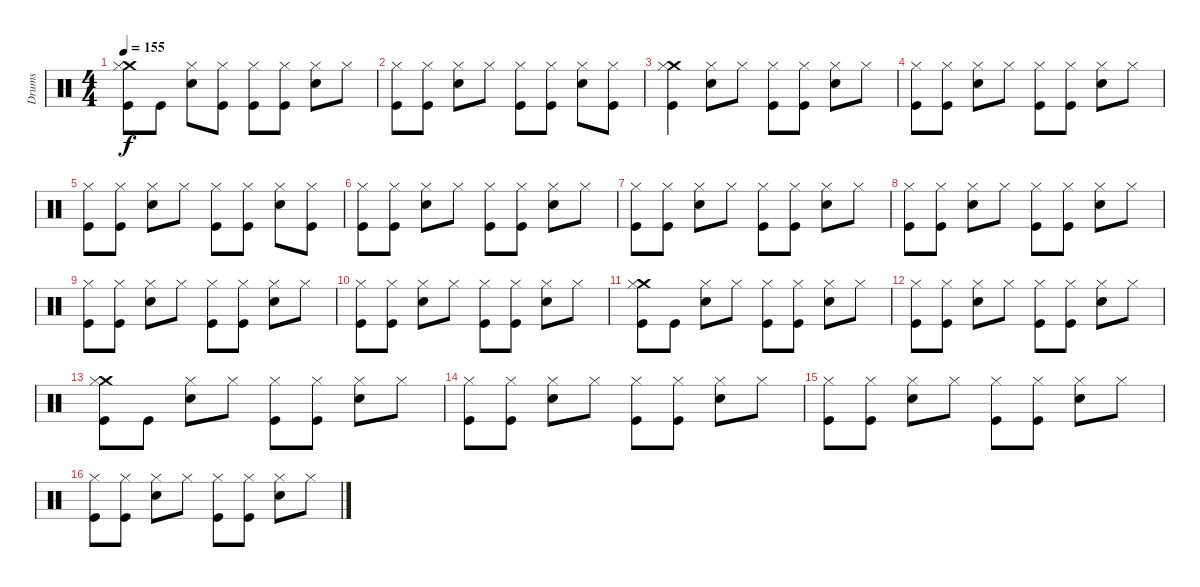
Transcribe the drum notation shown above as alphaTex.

\track ("Drums" "Drums") {instrument percussion}
\staff {score}
\articulation defaults
\ts (4 4)
\tempo 155
\clef neutral
\ks c
("Crash medium (hit)" "Hi-Hat (closed)" "Kick (hit)").8{dy f} "Kick (hit)".8 ("Hi-Hat (closed)" "Snare (hit) 2").8 ("Hi-Hat (closed)" "Kick (hit)").8 ("Hi-Hat (closed)" "Kick (hit)").8 ("Hi-Hat (closed)" "Kick (hit)").8 ("Hi-Hat (closed)" "Snare (hit) 2").8 "Hi-Hat (closed)".8 |
("Hi-Hat (closed)" "Kick (hit)").8 ("Hi-Hat (closed)" "Kick (hit)").8 ("Hi-Hat (closed)" "Snare (hit) 2").8 "Hi-Hat (closed)".8 ("Hi-Hat (closed)" "Kick (hit)").8 ("Hi-Hat (closed)" "Kick (hit)").8 ("Hi-Hat (closed)" "Snare (hit) 2").8 ("Hi-Hat (closed)" "Kick (hit)").8 |
("Crash medium (hit)" "Hi-Hat (closed)" "Kick (hit)").4 ("Hi-Hat (closed)" "Snare (hit) 2").8 "Hi-Hat (closed)".8 ("Hi-Hat (closed)" "Kick (hit)").8 ("Hi-Hat (closed)" "Kick (hit)").8 ("Hi-Hat (closed)" "Snare (hit) 2").8 "Hi-Hat (closed)".8 |
("Hi-Hat (closed)" "Kick (hit)").8 ("Hi-Hat (closed)" "Kick (hit)").8 ("Hi-Hat (closed)" "Snare (hit) 2").8 "Hi-Hat (closed)".8 ("Hi-Hat (closed)" "Kick (hit)").8 ("Hi-Hat (closed)" "Kick (hit)").8 ("Hi-Hat (closed)" "Snare (hit) 2").8 "Hi-Hat (closed)".8 |
("Hi-Hat (closed)" "Kick (hit)").8 ("Hi-Hat (closed)" "Kick (hit)").8 ("Hi-Hat (closed)" "Snare (hit) 2").8 "Hi-Hat (closed)".8 ("Hi-Hat (closed)" "Kick (hit)").8 ("Hi-Hat (closed)" "Kick (hit)").8 ("Hi-Hat (closed)" "Snare (hit) 2").8 ("Hi-Hat (closed)" "Kick (hit)").8 |
("Hi-Hat (closed)" "Kick (hit)").8 ("Hi-Hat (closed)" "Kick (hit)").8 ("Hi-Hat (closed)" "Snare (hit) 2").8 "Hi-Hat (closed)".8 ("Hi-Hat (closed)" "Kick (hit)").8 ("Hi-Hat (closed)" "Kick (hit)").8 ("Hi-Hat (closed)" "Snare (hit) 2").8 "Hi-Hat (closed)".8 |
("Hi-Hat (closed)" "Kick (hit)").8 ("Hi-Hat (closed)" "Kick (hit)").8 ("Hi-Hat (closed)" "Snare (hit) 2").8 "Hi-Hat (closed)".8 ("Hi-Hat (closed)" "Kick (hit)").8 ("Hi-Hat (closed)" "Kick (hit)").8 ("Hi-Hat (closed)" "Snare (hit) 2").8 "Hi-Hat (closed)".8 |
("Hi-Hat (closed)" "Kick (hit)").8 ("Hi-Hat (closed)" "Kick (hit)").8 ("Hi-Hat (closed)" "Snare (hit) 2").8 "Hi-Hat (closed)".8 ("Hi-Hat (closed)" "Kick (hit)").8 ("Hi-Hat (closed)" "Kick (hit)").8 ("Hi-Hat (closed)" "Snare (hit) 2").8 "Hi-Hat (closed)".8 |
("Hi-Hat (closed)" "Kick (hit)").8 ("Hi-Hat (closed)" "Kick (hit)").8 ("Hi-Hat (closed)" "Snare (hit) 2").8 "Hi-Hat (closed)".8 ("Hi-Hat (closed)" "Kick (hit)").8 ("Hi-Hat (closed)" "Kick (hit)").8 ("Hi-Hat (closed)" "Snare (hit) 2").8 "Hi-Hat (closed)".8 |
("Hi-Hat (closed)" "Kick (hit)").8 ("Hi-Hat (closed)" "Kick (hit)").8 ("Hi-Hat (closed)" "Snare (hit) 2").8 "Hi-Hat (closed)".8 ("Hi-Hat (closed)" "Kick (hit)").8 ("Hi-Hat (closed)" "Kick (hit)").8 ("Hi-Hat (closed)" "Snare (hit) 2").8 "Hi-Hat (closed)".8 |
("Crash medium (hit)" "Hi-Hat (closed)" "Kick (hit)").8 "Kick (hit)".8 ("Hi-Hat (closed)" "Snare (hit) 2").8 "Hi-Hat (closed)".8 ("Hi-Hat (closed)" "Kick (hit)").8 ("Hi-Hat (closed)" "Kick (hit)").8 ("Hi-Hat (closed)" "Snare (hit) 2").8 "Hi-Hat (closed)".8 |
("Hi-Hat (closed)" "Kick (hit)").8 ("Hi-Hat (closed)" "Kick (hit)").8 ("Hi-Hat (closed)" "Snare (hit) 2").8 "Hi-Hat (closed)".8 ("Hi-Hat (closed)" "Kick (hit)").8 ("Hi-Hat (closed)" "Kick (hit)").8 ("Hi-Hat (closed)" "Snare (hit) 2").8 "Hi-Hat (closed)".8 |
("Crash medium (hit)" "Hi-Hat (closed)" "Kick (hit)").8 "Kick (hit)".8 ("Hi-Hat (closed)" "Snare (hit) 2").8 "Hi-Hat (closed)".8 ("Hi-Hat (closed)" "Kick (hit)").8 ("Hi-Hat (closed)" "Kick (hit)").8 ("Hi-Hat (closed)" "Snare (hit) 2").8 "Hi-Hat (closed)".8 |
("Hi-Hat (closed)" "Kick (hit)").8 ("Hi-Hat (closed)" "Kick (hit)").8 ("Hi-Hat (closed)" "Snare (hit) 2").8 "Hi-Hat (closed)".8 ("Hi-Hat (closed)" "Kick (hit)").8 ("Hi-Hat (closed)" "Kick (hit)").8 ("Hi-Hat (closed)" "Snare (hit) 2").8 "Hi-Hat (closed)".8 |
("Hi-Hat (closed)" "Kick (hit)").8 ("Hi-Hat (closed)" "Kick (hit)").8 ("Hi-Hat (closed)" "Snare (hit) 2").8 "Hi-Hat (closed)".8 ("Hi-Hat (closed)" "Kick (hit)").8 ("Hi-Hat (closed)" "Kick (hit)").8 ("Hi-Hat (closed)" "Snare (hit) 2").8 "Hi-Hat (closed)".8 |
("Hi-Hat (closed)" "Kick (hit)").8 ("Hi-Hat (closed)" "Kick (hit)").8 ("Hi-Hat (closed)" "Snare (hit) 2").8 "Hi-Hat (closed)".8 ("Hi-Hat (closed)" "Kick (hit)").8 ("Hi-Hat (closed)" "Kick (hit)").8 ("Hi-Hat (closed)" "Snare (hit) 2").8 "Hi-Hat (closed)".8
